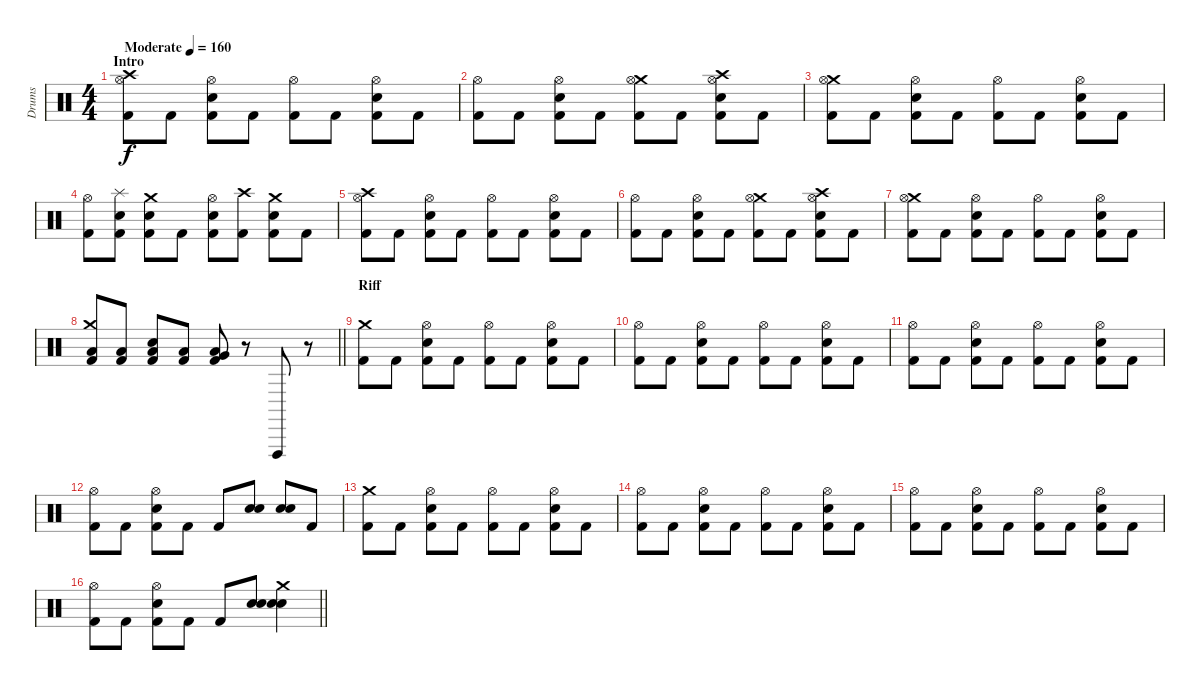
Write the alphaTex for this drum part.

\track ("Drums" "Drums") {instrument percussion}
\staff {score}
\articulation defaults
\ts (4 4)
\section ("" "Intro")
\tempo (160 "Moderate")
\clef neutral
\ks c
("Crash high (hit)" "Hi-Hat (open)" "Kick (hit) 2").8{dy f} "Kick (hit) 2".8 ("Hi-Hat (open)" "Snare (hit) 2" "Kick (hit) 2").8 "Kick (hit) 2".8 ("Hi-Hat (open)" "Kick (hit) 2").8 "Kick (hit) 2".8 ("Hi-Hat (open)" "Snare (hit) 2" "Kick (hit) 2").8 "Kick (hit) 2".8 |
("Hi-Hat (open)" "Kick (hit) 2").8 "Kick (hit) 2".8 ("Hi-Hat (open)" "Snare (hit) 2" "Kick (hit) 2").8 "Kick (hit) 2".8 ("Crash medium (hit)" "Hi-Hat (open)" "Kick (hit) 2").8 "Kick (hit) 2".8 ("Crash high (hit)" "Hi-Hat (open)" "Snare (hit) 2" "Kick (hit) 2").8 "Kick (hit) 2".8 |
("Crash medium (hit)" "Hi-Hat (open)" "Kick (hit) 2").8 "Kick (hit) 2".8 ("Hi-Hat (open)" "Snare (hit) 2" "Kick (hit) 2").8 "Kick (hit) 2".8 ("Hi-Hat (open)" "Kick (hit) 2").8 "Kick (hit) 2".8 ("Hi-Hat (open)" "Snare (hit) 2" "Kick (hit) 2").8 "Kick (hit) 2".8 |
("Hi-Hat (open)" "Kick (hit) 2").8 ("Splash (hit)" "Snare (hit) 2" "Kick (hit) 2").8 ("Crash medium (hit)" "Snare (hit) 2" "Kick (hit) 2").8 "Kick (hit) 2".8 ("Hi-Hat (open)" "Snare (hit) 2" "Kick (hit) 2").8 ("Crash high (hit)" "Kick (hit) 2").8 ("Crash medium (hit)" "Snare (hit) 2" "Kick (hit) 2").8 "Kick (hit) 2".8 |
("Crash high (hit)" "Hi-Hat (open)" "Kick (hit) 2").8 "Kick (hit) 2".8 ("Hi-Hat (open)" "Snare (hit) 2" "Kick (hit) 2").8 "Kick (hit) 2".8 ("Hi-Hat (open)" "Kick (hit) 2").8 "Kick (hit) 2".8 ("Hi-Hat (open)" "Snare (hit) 2" "Kick (hit) 2").8 "Kick (hit) 2".8 |
("Hi-Hat (open)" "Kick (hit) 2").8 "Kick (hit) 2".8 ("Hi-Hat (open)" "Snare (hit) 2" "Kick (hit) 2").8 "Kick (hit) 2".8 ("Crash medium (hit)" "Hi-Hat (open)" "Kick (hit) 2").8 "Kick (hit) 2".8 ("Crash high (hit)" "Hi-Hat (open)" "Snare (hit) 2" "Kick (hit) 2").8 "Kick (hit) 2".8 |
("Crash medium (hit)" "Hi-Hat (open)" "Kick (hit) 2").8 "Kick (hit) 2".8 ("Hi-Hat (open)" "Snare (hit) 2" "Kick (hit) 2").8 "Kick (hit) 2".8 ("Hi-Hat (open)" "Kick (hit) 2").8 "Kick (hit) 2".8 ("Hi-Hat (open)" "Snare (hit) 2" "Kick (hit) 2").8 "Kick (hit) 2".8 |
\barLineRight lightlight
("Crash medium (hit)" "Low Floor Tom (hit)" "Kick (hit) 2").8 ("Low Floor Tom (hit)" "Kick (hit) 2").8 ("Snare (hit) 2" "Low Floor Tom (hit)" "Kick (hit) 2").8 ("Low Floor Tom (hit)" "Kick (hit) 2").8 ("Very Low Tom (hit)" "Low Floor Tom (hit)" "Kick (hit) 2").8 r.8 "Vibraslap (hit)".8 r.8 |
\section ("" "Riff")
("Crash medium (hit)" "Kick (hit) 2").8 "Kick (hit) 2".8 ("Hi-Hat (open)" "Snare (hit) 2" "Kick (hit) 2").8 "Kick (hit) 2".8 ("Hi-Hat (open)" "Kick (hit) 2").8 "Kick (hit) 2".8 ("Hi-Hat (open)" "Snare (hit) 2" "Kick (hit) 2").8 "Kick (hit) 2".8 |
("Hi-Hat (open)" "Kick (hit) 2").8 "Kick (hit) 2".8 ("Hi-Hat (open)" "Snare (hit) 2" "Kick (hit) 2").8 "Kick (hit) 2".8 ("Hi-Hat (open)" "Kick (hit) 2").8 "Kick (hit) 2".8 ("Hi-Hat (open)" "Snare (hit) 2" "Kick (hit) 2").8 "Kick (hit) 2".8 |
("Hi-Hat (open)" "Kick (hit) 2").8 "Kick (hit) 2".8 ("Hi-Hat (open)" "Snare (hit) 2" "Kick (hit) 2").8 "Kick (hit) 2".8 ("Hi-Hat (open)" "Kick (hit) 2").8 "Kick (hit) 2".8 ("Hi-Hat (open)" "Snare (hit) 2" "Kick (hit) 2").8 "Kick (hit) 2".8 |
("Hi-Hat (open)" "Kick (hit) 2").8 "Kick (hit) 2".8 ("Hi-Hat (open)" "Snare (hit) 2" "Kick (hit) 2").8 "Kick (hit) 2".8 "Kick (hit) 2".8 ("Hand Clap (hit)" "Snare (hit) 2").8 ("Hand Clap (hit)" "Snare (hit) 2").8 "Kick (hit) 2".8 |
("Crash medium (hit)" "Kick (hit) 2").8 "Kick (hit) 2".8 ("Hi-Hat (open)" "Snare (hit) 2" "Kick (hit) 2").8 "Kick (hit) 2".8 ("Hi-Hat (open)" "Kick (hit) 2").8 "Kick (hit) 2".8 ("Hi-Hat (open)" "Snare (hit) 2" "Kick (hit) 2").8 "Kick (hit) 2".8 |
("Hi-Hat (open)" "Kick (hit) 2").8 "Kick (hit) 2".8 ("Hi-Hat (open)" "Snare (hit) 2" "Kick (hit) 2").8 "Kick (hit) 2".8 ("Hi-Hat (open)" "Kick (hit) 2").8 "Kick (hit) 2".8 ("Hi-Hat (open)" "Snare (hit) 2" "Kick (hit) 2").8 "Kick (hit) 2".8 |
("Hi-Hat (open)" "Kick (hit) 2").8 "Kick (hit) 2".8 ("Hi-Hat (open)" "Snare (hit) 2" "Kick (hit) 2").8 "Kick (hit) 2".8 ("Hi-Hat (open)" "Kick (hit) 2").8 "Kick (hit) 2".8 ("Hi-Hat (open)" "Snare (hit) 2" "Kick (hit) 2").8 "Kick (hit) 2".8 |
\barLineRight lightlight
("Hi-Hat (open)" "Kick (hit) 2").8 "Kick (hit) 2".8 ("Hi-Hat (open)" "Snare (hit) 2" "Kick (hit) 2").8 "Kick (hit) 2".8 "Kick (hit) 2".8 ("Hand Clap (hit)" "Snare (hit) 2").8 ("Crash medium (hit)" "Hand Clap (hit)" "Snare (hit) 2").4
